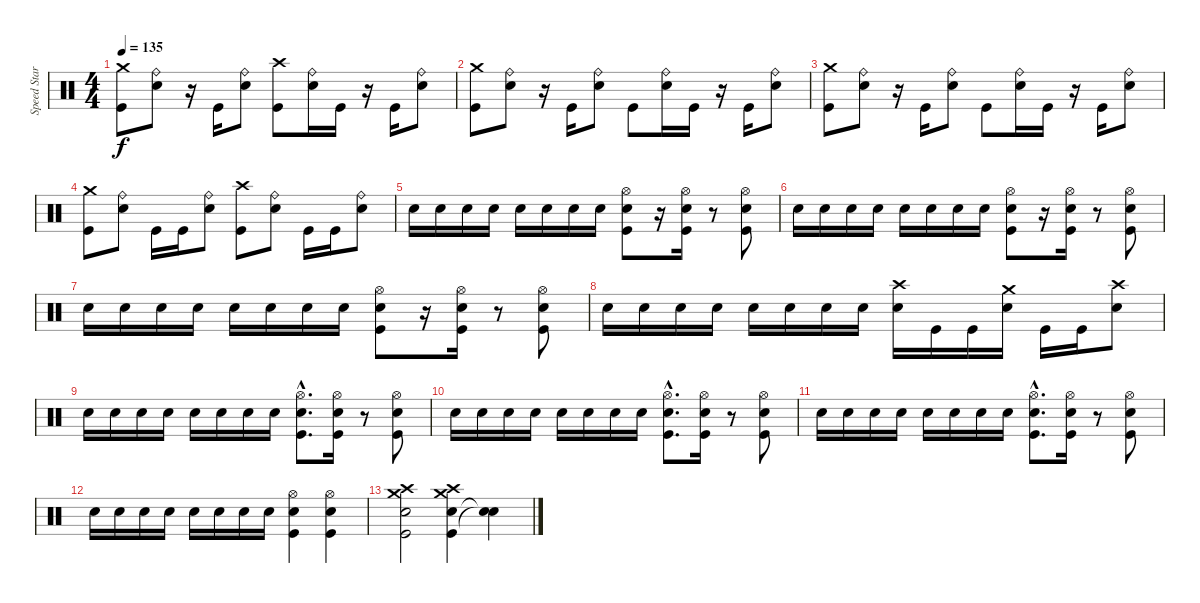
\track ("Speed Star" "Speed Star") {instrument percussion}
\staff {score}
\articulation defaults
\ts (4 4)
\tempo 135
\clef neutral
\ks c
("Kick (hit)" "Crash medium (hit)").8{dy f} ("Snare (hit) 2" "Ride (bell)").8 r.16 "Kick (hit)".16 ("Snare (hit) 2" "Ride (bell)").8 ("Kick (hit)" "Crash high (hit)").8 ("Snare (hit) 2" "Ride (bell)").16 "Kick (hit)".16 r.16 "Kick (hit)".16 ("Snare (hit) 2" "Ride (bell)").8 |
("Kick (hit)" "Crash medium (hit)").8 ("Snare (hit) 2" "Ride (bell)").8 r.16 "Kick (hit)".16 ("Snare (hit) 2" "Ride (bell)").8 "Kick (hit)".8 ("Snare (hit) 2" "Ride (bell)").16 "Kick (hit)".16 r.16 "Kick (hit)".16 ("Snare (hit) 2" "Ride (bell)").8 |
("Kick (hit)" "Crash medium (hit)").8 ("Snare (hit) 2" "Ride (bell)").8 r.16 "Kick (hit)".16 ("Snare (hit) 2" "Ride (bell)").8 "Kick (hit)".8 ("Snare (hit) 2" "Ride (bell)").16 "Kick (hit)".16 r.16 "Kick (hit)".16 ("Snare (hit) 2" "Ride (bell)").8 |
("Kick (hit)" "Crash medium (hit)").8 ("Snare (hit) 2" "Ride (bell)").8 "Kick (hit)".16 "Kick (hit)".16 ("Snare (hit) 2" "Ride (bell)").8 ("Kick (hit)" "Crash high (hit)").8 ("Snare (hit) 2" "Ride (bell)").8 "Kick (hit)".16 "Kick (hit)".16 ("Snare (hit) 2" "Ride (bell)").8 |
"Snare (hit) 2".16 "Snare (hit) 2".16 "Snare (hit) 2".16 "Snare (hit) 2".16 "Snare (hit) 2".16 "Snare (hit) 2".16 "Snare (hit) 2".16 "Snare (hit) 2".16 ("Kick (hit)" "Snare (hit) 2" "Hi-Hat (open)").8 r.16 ("Kick (hit)" "Snare (hit) 2" "Hi-Hat (open)").16 r.8 ("Kick (hit)" "Snare (hit) 2" "Hi-Hat (open)").8 |
"Snare (hit) 2".16 "Snare (hit) 2".16 "Snare (hit) 2".16 "Snare (hit) 2".16 "Snare (hit) 2".16 "Snare (hit) 2".16 "Snare (hit) 2".16 "Snare (hit) 2".16 ("Kick (hit)" "Snare (hit) 2" "Hi-Hat (open)").8 r.16 ("Kick (hit)" "Snare (hit) 2" "Hi-Hat (open)").16 r.8 ("Kick (hit)" "Snare (hit) 2" "Hi-Hat (open)").8 |
"Snare (hit) 2".16 "Snare (hit) 2".16 "Snare (hit) 2".16 "Snare (hit) 2".16 "Snare (hit) 2".16 "Snare (hit) 2".16 "Snare (hit) 2".16 "Snare (hit) 2".16 ("Kick (hit)" "Snare (hit) 2" "Hi-Hat (open)").8 r.16 ("Kick (hit)" "Snare (hit) 2" "Hi-Hat (open)").16 r.8 ("Kick (hit)" "Snare (hit) 2" "Hi-Hat (open)").8 |
"Snare (hit) 2".16 "Snare (hit) 2".16 "Snare (hit) 2".16 "Snare (hit) 2".16 "Snare (hit) 2".16 "Snare (hit) 2".16 "Snare (hit) 2".16 "Snare (hit) 2".16 ("Snare (hit) 2" "Crash high (hit)").16 "Kick (hit)".16 "Kick (hit)".16 ("Snare (hit) 2" "Crash medium (hit)").16 "Kick (hit)".16 "Kick (hit)".16 ("Snare (hit) 2" "Crash high (hit)").8 |
"Snare (hit) 2".16 "Snare (hit) 2".16 "Snare (hit) 2".16 "Snare (hit) 2".16 "Snare (hit) 2".16 "Snare (hit) 2".16 "Snare (hit) 2".16 "Snare (hit) 2".16 ("Kick (hit)"{hac} "Snare (hit) 2"{hac} "Hi-Hat (open)"{hac}).8{d} ("Kick (hit)" "Snare (hit) 2" "Hi-Hat (open)").16 r.8 ("Kick (hit)" "Snare (hit) 2" "Hi-Hat (open)").8 |
"Snare (hit) 2".16 "Snare (hit) 2".16 "Snare (hit) 2".16 "Snare (hit) 2".16 "Snare (hit) 2".16 "Snare (hit) 2".16 "Snare (hit) 2".16 "Snare (hit) 2".16 ("Kick (hit)"{hac} "Snare (hit) 2"{hac} "Hi-Hat (open)"{hac}).8{d} ("Kick (hit)" "Snare (hit) 2" "Hi-Hat (open)").16 r.8 ("Kick (hit)" "Snare (hit) 2" "Hi-Hat (open)").8 |
"Snare (hit) 2".16 "Snare (hit) 2".16 "Snare (hit) 2".16 "Snare (hit) 2".16 "Snare (hit) 2".16 "Snare (hit) 2".16 "Snare (hit) 2".16 "Snare (hit) 2".16 ("Kick (hit)"{hac} "Snare (hit) 2"{hac} "Hi-Hat (open)"{hac}).8{d} ("Kick (hit)" "Snare (hit) 2" "Hi-Hat (open)").16 r.8 ("Kick (hit)" "Snare (hit) 2" "Hi-Hat (open)").8 |
"Snare (hit) 2".16 "Snare (hit) 2".16 "Snare (hit) 2".16 "Snare (hit) 2".16 "Snare (hit) 2".16 "Snare (hit) 2".16 "Snare (hit) 2".16 "Snare (hit) 2".16 ("Kick (hit)" "Snare (hit) 2" "Hi-Hat (open)").4 ("Kick (hit)" "Snare (hit) 2" "Hi-Hat (open)").4 |
("Kick (hit)" "Snare (hit) 2" "Crash high (hit)" "Crash medium (hit)").2 ("Kick (hit)" "Snare (hit) 2" "Crash high (hit)" "Crash medium (hit)").4 ("Snare (hit)"{t} "Snare (hit)"{t}).4
